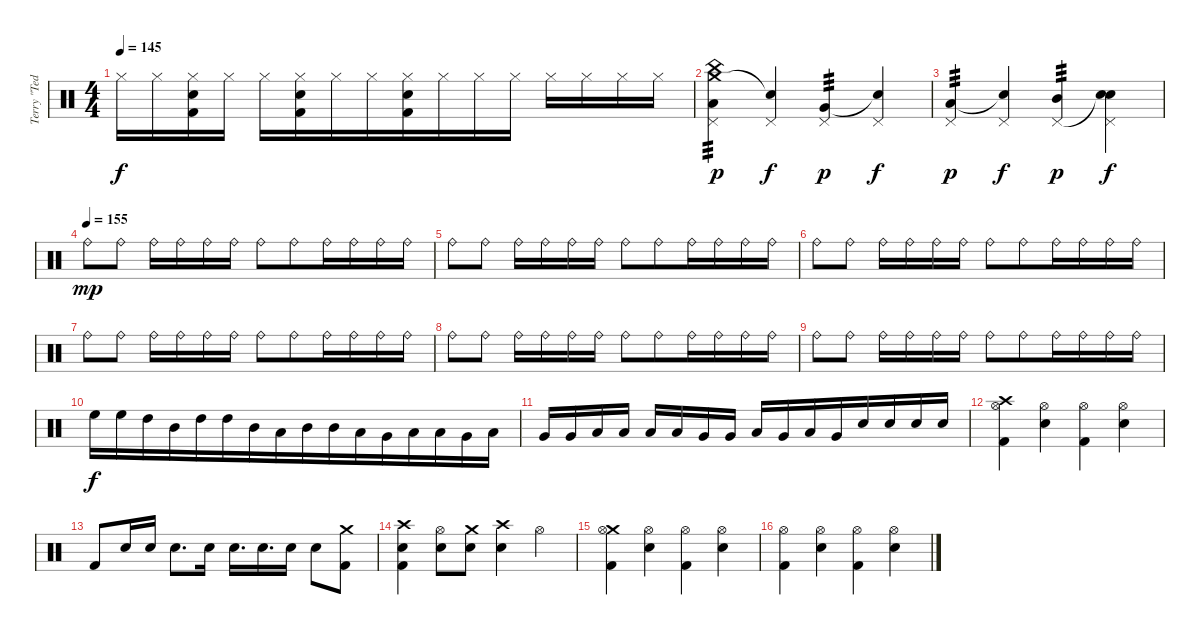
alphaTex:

\track ("Terry \"Ted\" Bozzio" "Terry \"Ted") {instrument percussion}
\staff {score}
\articulation defaults
\ts (4 4)
\tempo 145
\clef neutral
\ks c "Hi-Hat (closed)".16{dy f} "Hi-Hat (closed)".16{beam merge}
("Hi-Hat (closed)" "Electric Snare (hit)" "Kick (hit) 2").16 "Hi-Hat (closed)".16 "Hi-Hat (closed)".16 ("Hi-Hat (closed)" "Electric Snare (hit)" "Kick (hit) 2").16 "Hi-Hat (closed)".16 "Hi-Hat (closed)".16{beam merge} ("Hi-Hat (closed)" "Electric Snare (hit)" "Kick (hit) 2").16 "Hi-Hat (closed)".16 "Hi-Hat (closed)".16 "Hi-Hat (closed)".16 "Hi-Hat (closed)".16 "Hi-Hat (closed)".16 "Hi-Hat (closed)".16{beam merge} "Hi-Hat (closed)".16 |
("Crash medium (hit)" "China (hit)" "Low Floor Tom (hit)" "Pedal Hi-Hat (hit)").4{tp 3 dy p} ("Snare (hit)"{t} "Pedal Hi-Hat (hit)").4{dy f} ("Very Low Tom (hit)" "Pedal Hi-Hat (hit)").4{tp 3 dy p} ("Snare (hit)"{t} "Pedal Hi-Hat (hit)").4{dy f} |
("Low Tom (hit)" "Pedal Hi-Hat (hit)").4{tp 3 dy p} ("Snare (hit)"{t} "Pedal Hi-Hat (hit)").4{dy f beam merge} ("Mid Tom (hit)" "Pedal Hi-Hat (hit)").4{tp 3 dy p} ("Electric Snare (hit)" "Snare (hit)"{t} "Pedal Hi-Hat (hit)").4{dy f} |
\tempo (155)
"Ride (bell)".8{dy mp beam merge} "Ride (bell)".8 "Ride (bell)".16 "Ride (bell)".16{beam merge} "Ride (bell)".16{beam merge} "Ride (bell)".16 "Ride (bell)".8 "Ride (bell)".8{beam merge} "Ride (bell)".16 "Ride (bell)".16{beam merge} "Ride (bell)".16 "Ride (bell)".16 |
"Ride (bell)".8{beam merge} "Ride (bell)".8 "Ride (bell)".16 "Ride (bell)".16{beam merge} "Ride (bell)".16{beam merge} "Ride (bell)".16 "Ride (bell)".8 "Ride (bell)".8{beam merge} "Ride (bell)".16 "Ride (bell)".16{beam merge} "Ride (bell)".16 "Ride (bell)".16 |
"Ride (bell)".8{beam merge} "Ride (bell)".8 "Ride (bell)".16 "Ride (bell)".16{beam merge} "Ride (bell)".16{beam merge} "Ride (bell)".16 "Ride (bell)".8 "Ride (bell)".8{beam merge} "Ride (bell)".16 "Ride (bell)".16{beam merge} "Ride (bell)".16 "Ride (bell)".16 |
"Ride (bell)".8{beam merge} "Ride (bell)".8 "Ride (bell)".16 "Ride (bell)".16{beam merge} "Ride (bell)".16{beam merge} "Ride (bell)".16 "Ride (bell)".8 "Ride (bell)".8{beam merge} "Ride (bell)".16 "Ride (bell)".16{beam merge} "Ride (bell)".16 "Ride (bell)".16 |
"Ride (bell)".8{beam merge} "Ride (bell)".8 "Ride (bell)".16 "Ride (bell)".16{beam merge} "Ride (bell)".16{beam merge} "Ride (bell)".16 "Ride (bell)".8 "Ride (bell)".8{beam merge} "Ride (bell)".16 "Ride (bell)".16{beam merge} "Ride (bell)".16 "Ride (bell)".16 |
"Ride (bell)".8{beam merge} "Ride (bell)".8 "Ride (bell)".16 "Ride (bell)".16{beam merge} "Ride (bell)".16{beam merge} "Ride (bell)".16 "Ride (bell)".8 "Ride (bell)".8{beam merge} "Ride (bell)".16 "Ride (bell)".16{beam merge} "Ride (bell)".16 "Ride (bell)".16 |
"High Floor Tom (hit)".16{dy f} "High Floor Tom (hit)".16 "High Tom (hit)".16 "Mid Tom (hit)".16{beam merge} "High Tom (hit)".16{beam merge} "High Tom (hit)".16 "Mid Tom (hit)".16{beam merge} "Low Tom (hit)".16{beam merge} "Mid Tom (hit)".16 "Mid Tom (hit)".16{beam merge} "Low Tom (hit)".16{beam merge} "Very Low Tom (hit)".16{beam merge} "Low Tom (hit)".16{beam merge} "Low Tom (hit)".16 "Very Low Tom (hit)".16{beam merge} "Low Floor Tom (hit)".16 |
"Very Low Tom (hit)".16 "Very Low Tom (hit)".16{beam merge} "Low Floor Tom (hit)".16{beam merge} "Low Floor Tom (hit)".16 "Low Floor Tom (hit)".16 "Low Floor Tom (hit)".16 "Very Low Tom (hit)".16 "Very Low Tom (hit)".16 "Low Floor Tom (hit)".16 "Very Low Tom (hit)".16 "Low Floor Tom (hit)".16 "Very Low Tom (hit)".16{beam merge} "Electric Snare (hit)".16 "Electric Snare (hit)".16{beam merge} "Electric Snare (hit)".16 "Electric Snare (hit)".16 |
("Crash high (hit)" "Hi-Hat (open)" "Kick (hit) 2").4 ("Hi-Hat (open)" "Electric Snare (hit)").4 ("Hi-Hat (open)" "Kick (hit) 2").4 ("Hi-Hat (open)" "Electric Snare (hit)").4 |
"Kick (hit) 2".8{beam merge} "Electric Snare (hit)".16 "Electric Snare (hit)".16 "Electric Snare (hit)".8{d beam merge} "Electric Snare (hit)".16 "Electric Snare (hit)".16{d} "Electric Snare (hit)".16{d} "Electric Snare (hit)".16 "Electric Snare (hit)".8{beam merge} ("Crash medium (hit)" "Kick (hit) 2").8 |
("Crash high (hit)" "Electric Snare (hit)" "Kick (hit) 2").4 ("Hi-Hat (open)" "Electric Snare (hit)").8{beam merge} ("Crash medium (hit)" "Electric Snare (hit)").8{beam merge} ("Crash high (hit)" "Electric Snare (hit)").4 "Hi-Hat (open)".4 |
("Crash medium (hit)" "Hi-Hat (open)" "Kick (hit) 2").4 ("Hi-Hat (open)" "Electric Snare (hit)").4 ("Hi-Hat (open)" "Kick (hit) 2").4 ("Hi-Hat (open)" "Electric Snare (hit)").4 |
("Hi-Hat (open)" "Kick (hit) 2").4 ("Hi-Hat (open)" "Electric Snare (hit)").4 ("Hi-Hat (open)" "Kick (hit) 2").4 ("Hi-Hat (open)" "Electric Snare (hit)").4
